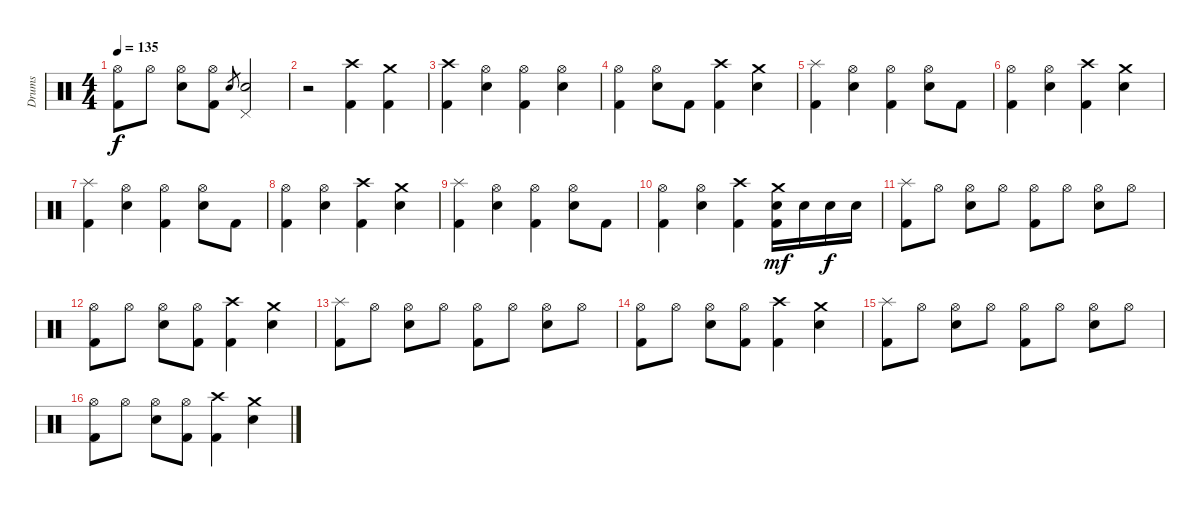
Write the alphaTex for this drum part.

\track ("Drums" "Drums") {instrument percussion}
\staff {score}
\articulation defaults
\ts (4 4)
\tempo 135
\clef neutral
\ks c
("Hi-Hat (open)" "Kick (hit) 2").8{dy f} "Hi-Hat (open)".8 ("Hi-Hat (open)" "Electric Snare (hit)").8 ("Hi-Hat (open)" "Kick (hit) 2").8 "Electric Snare (hit)".8{gr} ("Pedal Hi-Hat (hit)" "Electric Snare (hit)").2 |
r.2 ("Crash high (hit)" "Kick (hit) 2").4 ("Crash medium (hit)" "Kick (hit) 2").4 |
("Crash high (hit)" "Kick (hit) 2").4 ("Hi-Hat (open)" "Electric Snare (hit)").4 ("Hi-Hat (open)" "Kick (hit) 2").4 ("Hi-Hat (open)" "Electric Snare (hit)").4 |
("Hi-Hat (open)" "Kick (hit) 2").4 ("Hi-Hat (open)" "Electric Snare (hit)").8 "Kick (hit) 2".8 ("Crash high (hit)" "Kick (hit) 2").4 ("Crash medium (hit)" "Electric Snare (hit)").4 |
("Splash (hit)" "Kick (hit) 2").4 ("Hi-Hat (open)" "Electric Snare (hit)").4 ("Hi-Hat (open)" "Kick (hit) 2").4 ("Hi-Hat (open)" "Electric Snare (hit)").8 "Kick (hit) 2".8 |
("Hi-Hat (open)" "Kick (hit) 2").4 ("Hi-Hat (open)" "Electric Snare (hit)").4 ("Crash high (hit)" "Kick (hit) 2").4 ("Crash medium (hit)" "Electric Snare (hit)").4 |
("Splash (hit)" "Kick (hit) 2").4 ("Hi-Hat (open)" "Electric Snare (hit)").4 ("Hi-Hat (open)" "Kick (hit) 2").4 ("Hi-Hat (open)" "Electric Snare (hit)").8 "Kick (hit) 2".8 |
("Hi-Hat (open)" "Kick (hit) 2").4 ("Hi-Hat (open)" "Electric Snare (hit)").4 ("Crash high (hit)" "Kick (hit) 2").4 ("Crash medium (hit)" "Electric Snare (hit)").4 |
("Splash (hit)" "Kick (hit) 2").4 ("Hi-Hat (open)" "Electric Snare (hit)").4 ("Hi-Hat (open)" "Kick (hit) 2").4 ("Hi-Hat (open)" "Electric Snare (hit)").8 "Kick (hit) 2".8 |
("Hi-Hat (open)" "Kick (hit) 2").4 ("Hi-Hat (open)" "Electric Snare (hit)").4 ("Crash high (hit)" "Kick (hit) 2").4 ("Crash medium (hit)" "Electric Snare (hit)" "Kick (hit) 2").16{dy mf} "Electric Snare (hit)".16 "Electric Snare (hit)".16{dy f} "Electric Snare (hit)".16 |
("Splash (hit)" "Kick (hit) 2").8 "Hi-Hat (open)".8 ("Hi-Hat (open)" "Electric Snare (hit)").8 "Hi-Hat (open)".8 ("Hi-Hat (open)" "Kick (hit) 2").8 "Hi-Hat (open)".8 ("Hi-Hat (open)" "Electric Snare (hit)").8 "Hi-Hat (open)".8 |
("Hi-Hat (open)" "Kick (hit) 2").8 "Hi-Hat (open)".8 ("Hi-Hat (open)" "Electric Snare (hit)").8 ("Hi-Hat (open)" "Kick (hit) 2").8 ("Crash high (hit)" "Kick (hit) 2").4 ("Crash medium (hit)" "Electric Snare (hit)").4 |
("Splash (hit)" "Kick (hit) 2").8 "Hi-Hat (open)".8 ("Hi-Hat (open)" "Electric Snare (hit)").8 "Hi-Hat (open)".8 ("Hi-Hat (open)" "Kick (hit) 2").8 "Hi-Hat (open)".8 ("Hi-Hat (open)" "Electric Snare (hit)").8 "Hi-Hat (open)".8 |
("Hi-Hat (open)" "Kick (hit) 2").8 "Hi-Hat (open)".8 ("Hi-Hat (open)" "Electric Snare (hit)").8 ("Hi-Hat (open)" "Kick (hit) 2").8 ("Crash high (hit)" "Kick (hit) 2").4 ("Crash medium (hit)" "Electric Snare (hit)").4 |
("Splash (hit)" "Kick (hit) 2").8 "Hi-Hat (open)".8 ("Hi-Hat (open)" "Electric Snare (hit)").8 "Hi-Hat (open)".8 ("Hi-Hat (open)" "Kick (hit) 2").8 "Hi-Hat (open)".8 ("Hi-Hat (open)" "Electric Snare (hit)").8 "Hi-Hat (open)".8 |
("Hi-Hat (open)" "Kick (hit) 2").8 "Hi-Hat (open)".8 ("Hi-Hat (open)" "Electric Snare (hit)").8 ("Hi-Hat (open)" "Kick (hit) 2").8 ("Crash high (hit)" "Kick (hit) 2").4 ("Crash medium (hit)" "Electric Snare (hit)").4
